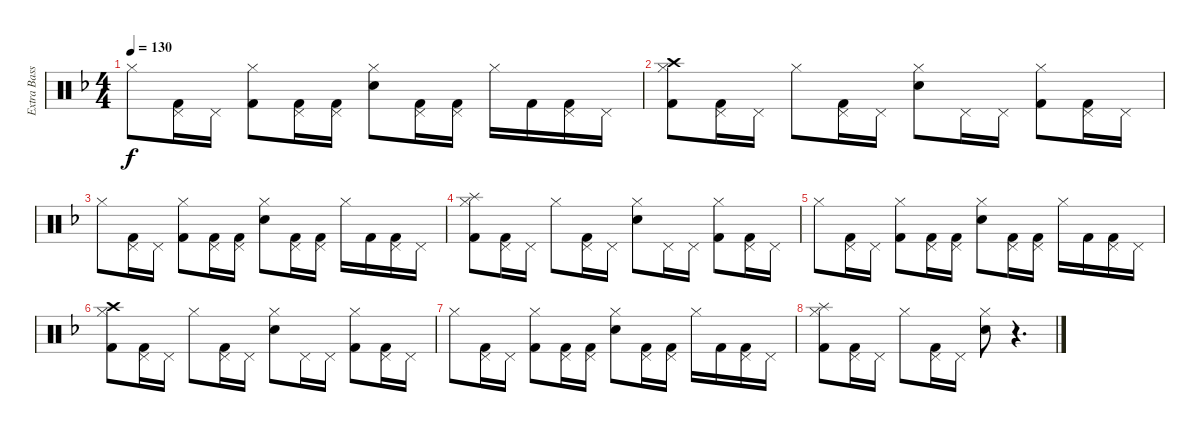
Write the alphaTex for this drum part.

\track ("Extra BassDrum" "Extra Bass") {instrument percussion}
\staff {score}
\articulation defaults
\ts (4 4)
\tempo 130
\clef neutral
\ks f "Hi-Hat (closed)".8{dy f}
("Pedal Hi-Hat (hit)" "Kick (hit) 2").16 "Pedal Hi-Hat (hit)".16 ("Hi-Hat (closed)" "Kick (hit) 2").8 ("Pedal Hi-Hat (hit)" "Kick (hit) 2").16 ("Pedal Hi-Hat (hit)" "Kick (hit) 2").16 ("Hi-Hat (closed)" "Snare (hit) 2").8 ("Pedal Hi-Hat (hit)" "Kick (hit) 2").16 ("Pedal Hi-Hat (hit)" "Kick (hit) 2").16 "Hi-Hat (closed)".16 "Kick (hit) 2".16 ("Pedal Hi-Hat (hit)" "Kick (hit) 2").16 "Pedal Hi-Hat (hit)".16 |
("Crash high (hit)" "Hi-Hat (closed)" "Kick (hit) 2").8 ("Pedal Hi-Hat (hit)" "Kick (hit) 2").16 "Pedal Hi-Hat (hit)".16 "Hi-Hat (closed)".8 ("Pedal Hi-Hat (hit)" "Kick (hit) 2").16 "Pedal Hi-Hat (hit)".16 ("Hi-Hat (closed)" "Snare (hit) 2").8 "Pedal Hi-Hat (hit)".16 "Pedal Hi-Hat (hit)".16 ("Hi-Hat (closed)" "Kick (hit) 2").8 ("Pedal Hi-Hat (hit)" "Kick (hit) 2").16 "Pedal Hi-Hat (hit)".16 |
"Hi-Hat (closed)".8 ("Pedal Hi-Hat (hit)" "Kick (hit) 2").16 "Pedal Hi-Hat (hit)".16 ("Hi-Hat (closed)" "Kick (hit) 2").8 ("Pedal Hi-Hat (hit)" "Kick (hit) 2").16 ("Pedal Hi-Hat (hit)" "Kick (hit) 2").16 ("Hi-Hat (closed)" "Snare (hit) 2").8 ("Pedal Hi-Hat (hit)" "Kick (hit) 2").16 ("Pedal Hi-Hat (hit)" "Kick (hit) 2").16 "Hi-Hat (closed)".16 "Kick (hit) 2".16 ("Pedal Hi-Hat (hit)" "Kick (hit) 2").16 "Pedal Hi-Hat (hit)".16 |
("Splash (hit)" "Hi-Hat (closed)" "Kick (hit) 2").8 ("Pedal Hi-Hat (hit)" "Kick (hit) 2").16 "Pedal Hi-Hat (hit)".16 "Hi-Hat (closed)".8 ("Pedal Hi-Hat (hit)" "Kick (hit) 2").16 "Pedal Hi-Hat (hit)".16 ("Hi-Hat (closed)" "Snare (hit) 2").8 "Pedal Hi-Hat (hit)".16 "Pedal Hi-Hat (hit)".16 ("Hi-Hat (closed)" "Kick (hit) 2").8 ("Pedal Hi-Hat (hit)" "Kick (hit) 2").16 "Pedal Hi-Hat (hit)".16 |
"Hi-Hat (closed)".8 ("Pedal Hi-Hat (hit)" "Kick (hit) 2").16 "Pedal Hi-Hat (hit)".16 ("Hi-Hat (closed)" "Kick (hit) 2").8 ("Pedal Hi-Hat (hit)" "Kick (hit) 2").16 ("Pedal Hi-Hat (hit)" "Kick (hit) 2").16 ("Hi-Hat (closed)" "Snare (hit) 2").8 ("Pedal Hi-Hat (hit)" "Kick (hit) 2").16 ("Pedal Hi-Hat (hit)" "Kick (hit) 2").16 "Hi-Hat (closed)".16 "Kick (hit) 2".16 ("Pedal Hi-Hat (hit)" "Kick (hit) 2").16 "Pedal Hi-Hat (hit)".16 |
("Crash high (hit)" "Hi-Hat (closed)" "Kick (hit) 2").8 ("Pedal Hi-Hat (hit)" "Kick (hit) 2").16 "Pedal Hi-Hat (hit)".16 "Hi-Hat (closed)".8 ("Pedal Hi-Hat (hit)" "Kick (hit) 2").16 "Pedal Hi-Hat (hit)".16 ("Hi-Hat (closed)" "Snare (hit) 2").8 "Pedal Hi-Hat (hit)".16 "Pedal Hi-Hat (hit)".16 ("Hi-Hat (closed)" "Kick (hit) 2").8 ("Pedal Hi-Hat (hit)" "Kick (hit) 2").16 "Pedal Hi-Hat (hit)".16 |
"Hi-Hat (closed)".8 ("Pedal Hi-Hat (hit)" "Kick (hit) 2").16 "Pedal Hi-Hat (hit)".16 ("Hi-Hat (closed)" "Kick (hit) 2").8 ("Pedal Hi-Hat (hit)" "Kick (hit) 2").16 ("Pedal Hi-Hat (hit)" "Kick (hit) 2").16 ("Hi-Hat (closed)" "Snare (hit) 2").8 ("Pedal Hi-Hat (hit)" "Kick (hit) 2").16 ("Pedal Hi-Hat (hit)" "Kick (hit) 2").16 "Hi-Hat (closed)".16 "Kick (hit) 2".16 ("Pedal Hi-Hat (hit)" "Kick (hit) 2").16 "Pedal Hi-Hat (hit)".16 |
("Splash (hit)" "Hi-Hat (closed)" "Kick (hit) 2").8 ("Pedal Hi-Hat (hit)" "Kick (hit) 2").16 "Pedal Hi-Hat (hit)".16 "Hi-Hat (closed)".8 ("Pedal Hi-Hat (hit)" "Kick (hit) 2").16 "Pedal Hi-Hat (hit)".16 ("Hi-Hat (closed)" "Snare (hit) 2").8 r.4{d}
